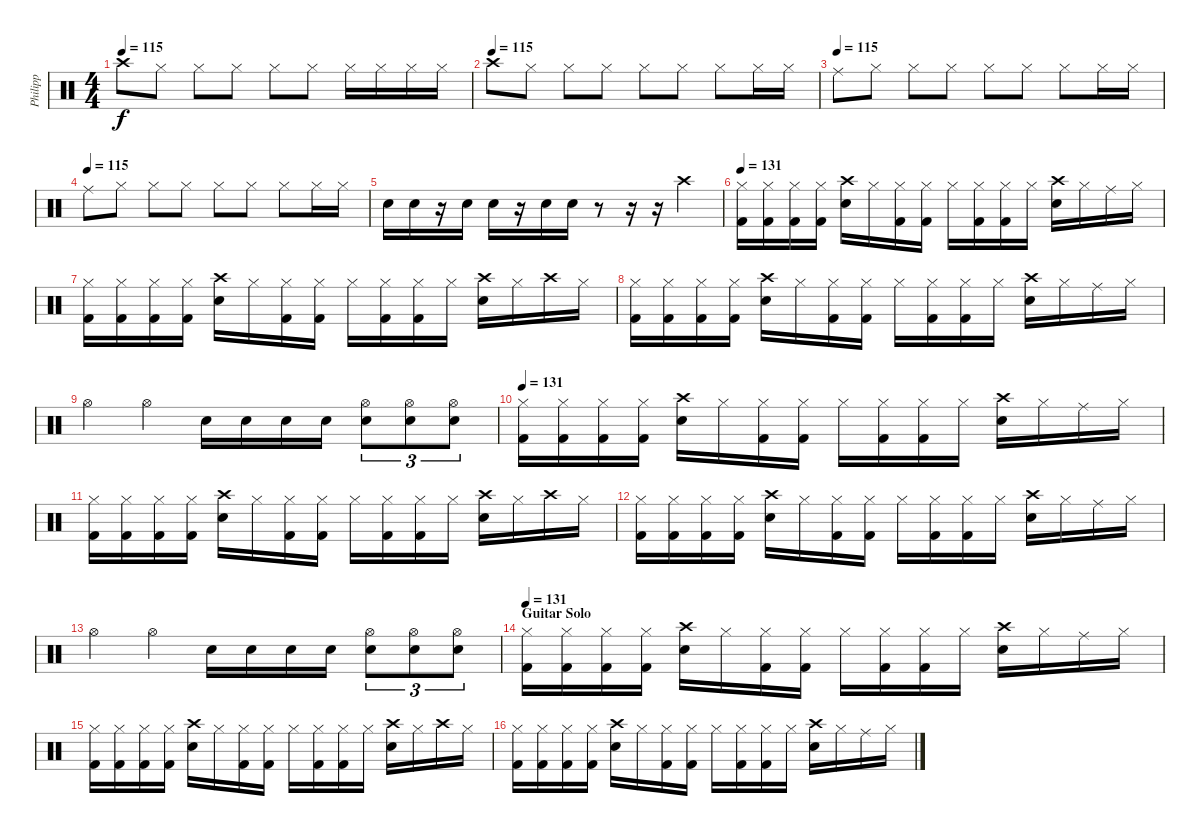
\track ("Philipp" "Philipp") {instrument percussion}
\staff {score}
\articulation defaults
\ts (4 4)
\tempo 115
\clef neutral
\ks c "Crash high (hit)".8{dy f} "Hi-Hat (closed)".8 "Hi-Hat (closed)".8 "Hi-Hat (closed)".8 "Hi-Hat (closed)".8 "Hi-Hat (closed)".8 "Hi-Hat (closed)".16 "Hi-Hat (closed)".16 "Hi-Hat (closed)".16 "Hi-Hat (closed)".16
|
\tempo (115)
"Crash high (hit)".8 "Hi-Hat (closed)".8 "Hi-Hat (closed)".8 "Hi-Hat (closed)".8 "Hi-Hat (closed)".8 "Hi-Hat (closed)".8 "Hi-Hat (closed)".8 "Hi-Hat (closed)".16 "Hi-Hat (closed)".16 |
\tempo (115)
"Ride (middle)".8 "Hi-Hat (closed)".8 "Hi-Hat (closed)".8 "Hi-Hat (closed)".8 "Hi-Hat (closed)".8 "Hi-Hat (closed)".8 "Hi-Hat (closed)".8 "Hi-Hat (closed)".16 "Hi-Hat (closed)".16 |
\tempo (115)
"Ride (middle)".8 "Hi-Hat (closed)".8 "Hi-Hat (closed)".8 "Hi-Hat (closed)".8 "Hi-Hat (closed)".8 "Hi-Hat (closed)".8 "Hi-Hat (closed)".8 "Hi-Hat (closed)".16 "Hi-Hat (closed)".16 |
"Electric Snare (hit)".16 "Electric Snare (hit)".16 r.16 "Electric Snare (hit)".16 "Electric Snare (hit)".16 r.16 "Electric Snare (hit)".16 "Electric Snare (hit)".16 r.8 r.16 r.16 "Crash high (hit)".4 |
\tempo 131
("Hi-Hat (closed)" "Kick (hit) 2").16 ("Hi-Hat (closed)" "Kick (hit) 2").16 ("Hi-Hat (closed)" "Kick (hit) 2").16 ("Hi-Hat (closed)" "Kick (hit) 2").16 ("Crash high (hit)" "Electric Snare (hit)").16 "Hi-Hat (closed)".16 ("Hi-Hat (closed)" "Kick (hit) 2").16 ("Hi-Hat (closed)" "Kick (hit) 2").16 "Hi-Hat (closed)".16 ("Hi-Hat (closed)" "Kick (hit) 2").16 ("Hi-Hat (closed)" "Kick (hit) 2").16 "Hi-Hat (closed)".16 ("Crash high (hit)" "Electric Snare (hit)").16 "Hi-Hat (closed)".16 "Ride (middle)".16 "Hi-Hat (closed)".16 |
("Hi-Hat (closed)" "Kick (hit) 2").16 ("Hi-Hat (closed)" "Kick (hit) 2").16 ("Hi-Hat (closed)" "Kick (hit) 2").16 ("Hi-Hat (closed)" "Kick (hit) 2").16 ("Crash high (hit)" "Electric Snare (hit)").16 "Hi-Hat (closed)".16 ("Hi-Hat (closed)" "Kick (hit) 2").16 ("Hi-Hat (closed)" "Kick (hit) 2").16 "Hi-Hat (closed)".16 ("Hi-Hat (closed)" "Kick (hit) 2").16 ("Hi-Hat (closed)" "Kick (hit) 2").16 "Hi-Hat (closed)".16 ("Crash high (hit)" "Electric Snare (hit)").16 "Hi-Hat (closed)".16 "Crash high (hit)".16 "Hi-Hat (closed)".16 |
("Hi-Hat (closed)" "Kick (hit) 2").16 ("Hi-Hat (closed)" "Kick (hit) 2").16 ("Hi-Hat (closed)" "Kick (hit) 2").16 ("Hi-Hat (closed)" "Kick (hit) 2").16 ("Crash high (hit)" "Electric Snare (hit)").16 "Hi-Hat (closed)".16 ("Hi-Hat (closed)" "Kick (hit) 2").16 ("Hi-Hat (closed)" "Kick (hit) 2").16 "Hi-Hat (closed)".16 ("Hi-Hat (closed)" "Kick (hit) 2").16 ("Hi-Hat (closed)" "Kick (hit) 2").16 "Hi-Hat (closed)".16 ("Crash high (hit)" "Electric Snare (hit)").16 "Hi-Hat (closed)".16 "Ride (middle)".16 "Hi-Hat (closed)".16 |
"Hi-Hat (open)".4 "Hi-Hat (open)".4 "Electric Snare (hit)".16 "Electric Snare (hit)".16 "Electric Snare (hit)".16 "Electric Snare (hit)".16 ("Hi-Hat (open)" "Electric Snare (hit)").8{tu (3 2)} ("Hi-Hat (open)" "Electric Snare (hit)").8{tu (3 2)} ("Hi-Hat (open)" "Electric Snare (hit)").8{tu (3 2)} |
\tempo 131
("Hi-Hat (closed)" "Kick (hit) 2").16 ("Hi-Hat (closed)" "Kick (hit) 2").16 ("Hi-Hat (closed)" "Kick (hit) 2").16 ("Hi-Hat (closed)" "Kick (hit) 2").16 ("Crash high (hit)" "Electric Snare (hit)").16 "Hi-Hat (closed)".16 ("Hi-Hat (closed)" "Kick (hit) 2").16 ("Hi-Hat (closed)" "Kick (hit) 2").16 "Hi-Hat (closed)".16 ("Hi-Hat (closed)" "Kick (hit) 2").16 ("Hi-Hat (closed)" "Kick (hit) 2").16 "Hi-Hat (closed)".16 ("Crash high (hit)" "Electric Snare (hit)").16 "Hi-Hat (closed)".16 "Ride (middle)".16 "Hi-Hat (closed)".16 |
("Hi-Hat (closed)" "Kick (hit) 2").16 ("Hi-Hat (closed)" "Kick (hit) 2").16 ("Hi-Hat (closed)" "Kick (hit) 2").16 ("Hi-Hat (closed)" "Kick (hit) 2").16 ("Crash high (hit)" "Electric Snare (hit)").16 "Hi-Hat (closed)".16 ("Hi-Hat (closed)" "Kick (hit) 2").16 ("Hi-Hat (closed)" "Kick (hit) 2").16 "Hi-Hat (closed)".16 ("Hi-Hat (closed)" "Kick (hit) 2").16 ("Hi-Hat (closed)" "Kick (hit) 2").16 "Hi-Hat (closed)".16 ("Crash high (hit)" "Electric Snare (hit)").16 "Hi-Hat (closed)".16 "Crash high (hit)".16 "Hi-Hat (closed)".16 |
("Hi-Hat (closed)" "Kick (hit) 2").16 ("Hi-Hat (closed)" "Kick (hit) 2").16 ("Hi-Hat (closed)" "Kick (hit) 2").16 ("Hi-Hat (closed)" "Kick (hit) 2").16 ("Crash high (hit)" "Electric Snare (hit)").16 "Hi-Hat (closed)".16 ("Hi-Hat (closed)" "Kick (hit) 2").16 ("Hi-Hat (closed)" "Kick (hit) 2").16 "Hi-Hat (closed)".16 ("Hi-Hat (closed)" "Kick (hit) 2").16 ("Hi-Hat (closed)" "Kick (hit) 2").16 "Hi-Hat (closed)".16 ("Crash high (hit)" "Electric Snare (hit)").16 "Hi-Hat (closed)".16 "Ride (middle)".16 "Hi-Hat (closed)".16 |
"Hi-Hat (open)".4 "Hi-Hat (open)".4 "Electric Snare (hit)".16 "Electric Snare (hit)".16 "Electric Snare (hit)".16 "Electric Snare (hit)".16 ("Hi-Hat (open)" "Electric Snare (hit)").8{tu (3 2)} ("Hi-Hat (open)" "Electric Snare (hit)").8{tu (3 2)} ("Hi-Hat (open)" "Electric Snare (hit)").8{tu (3 2)} |
\section ("" "Guitar Solo")
\tempo 131
("Hi-Hat (closed)" "Kick (hit) 2").16 ("Hi-Hat (closed)" "Kick (hit) 2").16 ("Hi-Hat (closed)" "Kick (hit) 2").16 ("Hi-Hat (closed)" "Kick (hit) 2").16 ("Crash high (hit)" "Electric Snare (hit)").16 "Hi-Hat (closed)".16 ("Hi-Hat (closed)" "Kick (hit) 2").16 ("Hi-Hat (closed)" "Kick (hit) 2").16 "Hi-Hat (closed)".16 ("Hi-Hat (closed)" "Kick (hit) 2").16 ("Hi-Hat (closed)" "Kick (hit) 2").16 "Hi-Hat (closed)".16 ("Crash high (hit)" "Electric Snare (hit)").16 "Hi-Hat (closed)".16 "Ride (middle)".16 "Hi-Hat (closed)".16 |
("Hi-Hat (closed)" "Kick (hit) 2").16 ("Hi-Hat (closed)" "Kick (hit) 2").16 ("Hi-Hat (closed)" "Kick (hit) 2").16 ("Hi-Hat (closed)" "Kick (hit) 2").16 ("Crash high (hit)" "Electric Snare (hit)").16 "Hi-Hat (closed)".16 ("Hi-Hat (closed)" "Kick (hit) 2").16 ("Hi-Hat (closed)" "Kick (hit) 2").16 "Hi-Hat (closed)".16 ("Hi-Hat (closed)" "Kick (hit) 2").16 ("Hi-Hat (closed)" "Kick (hit) 2").16 "Hi-Hat (closed)".16 ("Crash high (hit)" "Electric Snare (hit)").16 "Hi-Hat (closed)".16 "Crash high (hit)".16 "Hi-Hat (closed)".16 |
("Hi-Hat (closed)" "Kick (hit) 2").16 ("Hi-Hat (closed)" "Kick (hit) 2").16 ("Hi-Hat (closed)" "Kick (hit) 2").16 ("Hi-Hat (closed)" "Kick (hit) 2").16 ("Crash high (hit)" "Electric Snare (hit)").16 "Hi-Hat (closed)".16 ("Hi-Hat (closed)" "Kick (hit) 2").16 ("Hi-Hat (closed)" "Kick (hit) 2").16 "Hi-Hat (closed)".16 ("Hi-Hat (closed)" "Kick (hit) 2").16 ("Hi-Hat (closed)" "Kick (hit) 2").16 "Hi-Hat (closed)".16 ("Crash high (hit)" "Electric Snare (hit)").16 "Hi-Hat (closed)".16 "Ride (middle)".16 "Hi-Hat (closed)".16
